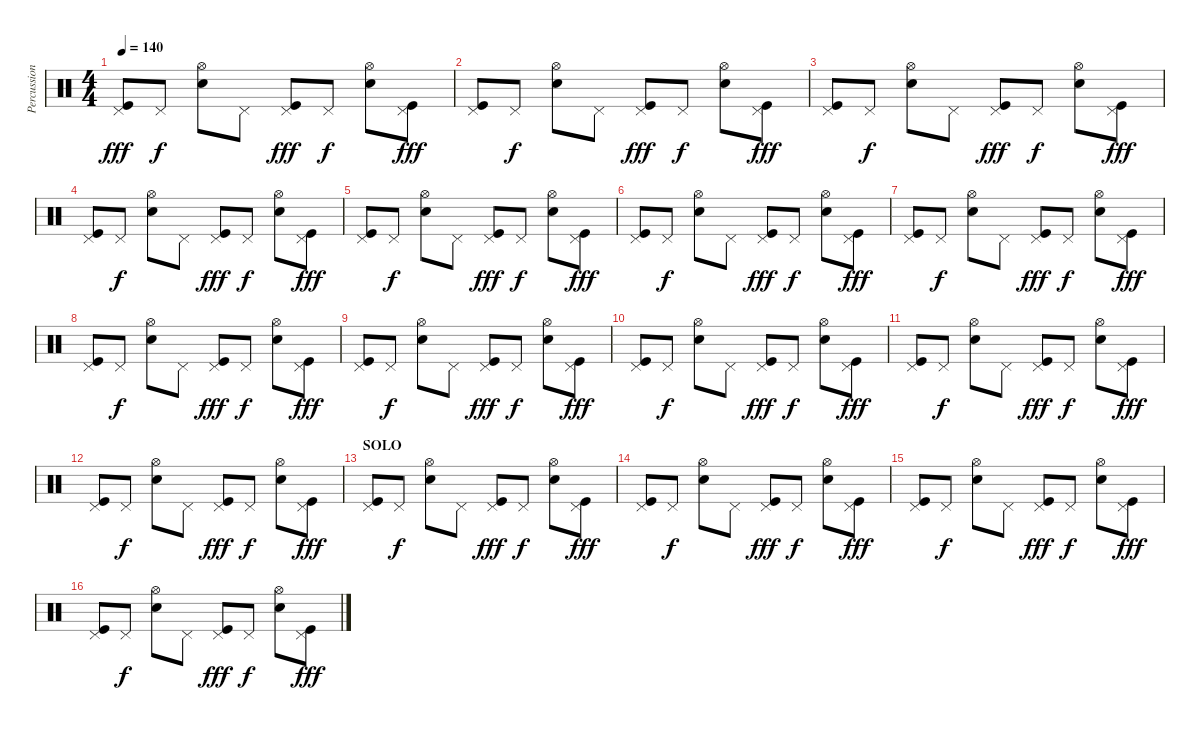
\track ("Percussion" "Percussion") {instrument percussion}
\staff {score}
\articulation defaults
\ts (4 4)
\tempo 140
\clef neutral
\ks c
("Kick (hit)" "Pedal Hi-Hat (hit)").8{dy fff} "Pedal Hi-Hat (hit)".8{dy f} ("Metronome (bell)" "Hi-Hat (open)").8 "Pedal Hi-Hat (hit)".8 ("Kick (hit)" "Pedal Hi-Hat (hit)").8{dy fff} "Pedal Hi-Hat (hit)".8{dy f} ("Metronome (bell)" "Hi-Hat (open)").8 ("Kick (hit)" "Pedal Hi-Hat (hit)").8{dy fff} |
("Kick (hit)" "Pedal Hi-Hat (hit)").8 "Pedal Hi-Hat (hit)".8{dy f} ("Metronome (bell)" "Hi-Hat (open)").8 "Pedal Hi-Hat (hit)".8 ("Kick (hit)" "Pedal Hi-Hat (hit)").8{dy fff} "Pedal Hi-Hat (hit)".8{dy f} ("Metronome (bell)" "Hi-Hat (open)").8 ("Kick (hit)" "Pedal Hi-Hat (hit)").8{dy fff} |
("Kick (hit)" "Pedal Hi-Hat (hit)").8 "Pedal Hi-Hat (hit)".8{dy f} ("Metronome (bell)" "Hi-Hat (open)").8 "Pedal Hi-Hat (hit)".8 ("Kick (hit)" "Pedal Hi-Hat (hit)").8{dy fff} "Pedal Hi-Hat (hit)".8{dy f} ("Metronome (bell)" "Hi-Hat (open)").8 ("Kick (hit)" "Pedal Hi-Hat (hit)").8{dy fff} |
("Kick (hit)" "Pedal Hi-Hat (hit)").8 "Pedal Hi-Hat (hit)".8{dy f} ("Metronome (bell)" "Hi-Hat (open)").8 "Pedal Hi-Hat (hit)".8 ("Kick (hit)" "Pedal Hi-Hat (hit)").8{dy fff} "Pedal Hi-Hat (hit)".8{dy f} ("Metronome (bell)" "Hi-Hat (open)").8 ("Kick (hit)" "Pedal Hi-Hat (hit)").8{dy fff} |
("Kick (hit)" "Pedal Hi-Hat (hit)").8 "Pedal Hi-Hat (hit)".8{dy f} ("Metronome (bell)" "Hi-Hat (open)").8 "Pedal Hi-Hat (hit)".8 ("Kick (hit)" "Pedal Hi-Hat (hit)").8{dy fff} "Pedal Hi-Hat (hit)".8{dy f} ("Metronome (bell)" "Hi-Hat (open)").8 ("Kick (hit)" "Pedal Hi-Hat (hit)").8{dy fff} |
("Kick (hit)" "Pedal Hi-Hat (hit)").8 "Pedal Hi-Hat (hit)".8{dy f} ("Metronome (bell)" "Hi-Hat (open)").8 "Pedal Hi-Hat (hit)".8 ("Kick (hit)" "Pedal Hi-Hat (hit)").8{dy fff} "Pedal Hi-Hat (hit)".8{dy f} ("Metronome (bell)" "Hi-Hat (open)").8 ("Kick (hit)" "Pedal Hi-Hat (hit)").8{dy fff} |
("Kick (hit)" "Pedal Hi-Hat (hit)").8 "Pedal Hi-Hat (hit)".8{dy f} ("Metronome (bell)" "Hi-Hat (open)").8 "Pedal Hi-Hat (hit)".8 ("Kick (hit)" "Pedal Hi-Hat (hit)").8{dy fff} "Pedal Hi-Hat (hit)".8{dy f} ("Metronome (bell)" "Hi-Hat (open)").8 ("Kick (hit)" "Pedal Hi-Hat (hit)").8{dy fff} |
("Kick (hit)" "Pedal Hi-Hat (hit)").8 "Pedal Hi-Hat (hit)".8{dy f} ("Metronome (bell)" "Hi-Hat (open)").8 "Pedal Hi-Hat (hit)".8 ("Kick (hit)" "Pedal Hi-Hat (hit)").8{dy fff} "Pedal Hi-Hat (hit)".8{dy f} ("Metronome (bell)" "Hi-Hat (open)").8 ("Kick (hit)" "Pedal Hi-Hat (hit)").8{dy fff} |
("Kick (hit)" "Pedal Hi-Hat (hit)").8 "Pedal Hi-Hat (hit)".8{dy f} ("Metronome (bell)" "Hi-Hat (open)").8 "Pedal Hi-Hat (hit)".8 ("Kick (hit)" "Pedal Hi-Hat (hit)").8{dy fff} "Pedal Hi-Hat (hit)".8{dy f} ("Metronome (bell)" "Hi-Hat (open)").8 ("Kick (hit)" "Pedal Hi-Hat (hit)").8{dy fff} |
("Kick (hit)" "Pedal Hi-Hat (hit)").8 "Pedal Hi-Hat (hit)".8{dy f} ("Metronome (bell)" "Hi-Hat (open)").8 "Pedal Hi-Hat (hit)".8 ("Kick (hit)" "Pedal Hi-Hat (hit)").8{dy fff} "Pedal Hi-Hat (hit)".8{dy f} ("Metronome (bell)" "Hi-Hat (open)").8 ("Kick (hit)" "Pedal Hi-Hat (hit)").8{dy fff} |
("Kick (hit)" "Pedal Hi-Hat (hit)").8 "Pedal Hi-Hat (hit)".8{dy f} ("Metronome (bell)" "Hi-Hat (open)").8 "Pedal Hi-Hat (hit)".8 ("Kick (hit)" "Pedal Hi-Hat (hit)").8{dy fff} "Pedal Hi-Hat (hit)".8{dy f} ("Metronome (bell)" "Hi-Hat (open)").8 ("Kick (hit)" "Pedal Hi-Hat (hit)").8{dy fff} |
("Kick (hit)" "Pedal Hi-Hat (hit)").8 "Pedal Hi-Hat (hit)".8{dy f} ("Metronome (bell)" "Hi-Hat (open)").8 "Pedal Hi-Hat (hit)".8 ("Kick (hit)" "Pedal Hi-Hat (hit)").8{dy fff} "Pedal Hi-Hat (hit)".8{dy f} ("Metronome (bell)" "Hi-Hat (open)").8 ("Kick (hit)" "Pedal Hi-Hat (hit)").8{dy fff} |
\section ("" "SOLO")
("Kick (hit)" "Pedal Hi-Hat (hit)").8 "Pedal Hi-Hat (hit)".8{dy f} ("Metronome (bell)" "Hi-Hat (open)").8 "Pedal Hi-Hat (hit)".8 ("Kick (hit)" "Pedal Hi-Hat (hit)").8{dy fff} "Pedal Hi-Hat (hit)".8{dy f} ("Metronome (bell)" "Hi-Hat (open)").8 ("Kick (hit)" "Pedal Hi-Hat (hit)").8{dy fff} |
("Kick (hit)" "Pedal Hi-Hat (hit)").8 "Pedal Hi-Hat (hit)".8{dy f} ("Metronome (bell)" "Hi-Hat (open)").8 "Pedal Hi-Hat (hit)".8 ("Kick (hit)" "Pedal Hi-Hat (hit)").8{dy fff} "Pedal Hi-Hat (hit)".8{dy f} ("Metronome (bell)" "Hi-Hat (open)").8 ("Kick (hit)" "Pedal Hi-Hat (hit)").8{dy fff} |
("Kick (hit)" "Pedal Hi-Hat (hit)").8 "Pedal Hi-Hat (hit)".8{dy f} ("Metronome (bell)" "Hi-Hat (open)").8 "Pedal Hi-Hat (hit)".8 ("Kick (hit)" "Pedal Hi-Hat (hit)").8{dy fff} "Pedal Hi-Hat (hit)".8{dy f} ("Metronome (bell)" "Hi-Hat (open)").8 ("Kick (hit)" "Pedal Hi-Hat (hit)").8{dy fff} |
("Kick (hit)" "Pedal Hi-Hat (hit)").8 "Pedal Hi-Hat (hit)".8{dy f} ("Metronome (bell)" "Hi-Hat (open)").8 "Pedal Hi-Hat (hit)".8 ("Kick (hit)" "Pedal Hi-Hat (hit)").8{dy fff} "Pedal Hi-Hat (hit)".8{dy f} ("Metronome (bell)" "Hi-Hat (open)").8 ("Kick (hit)" "Pedal Hi-Hat (hit)").8{dy fff}
